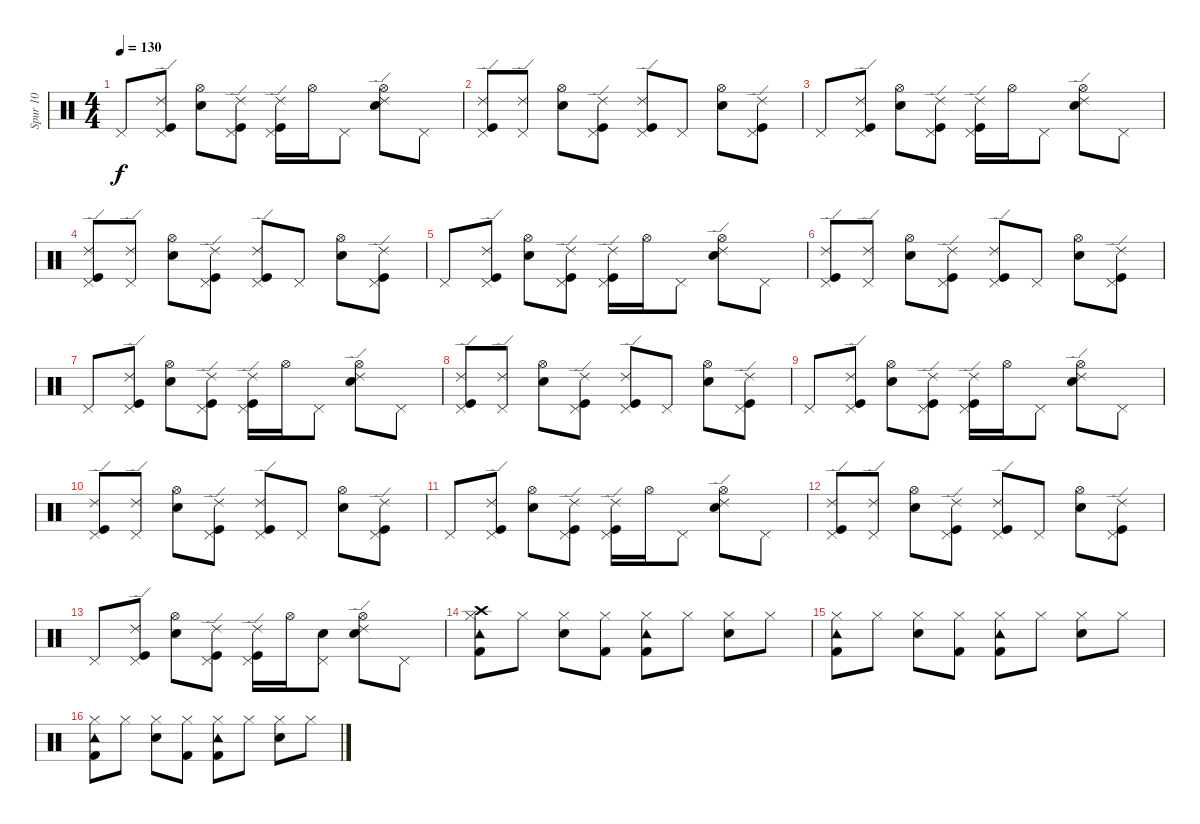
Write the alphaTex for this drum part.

\track ("Spur 10" "Spur 10") {instrument percussion}
\staff {score}
\articulation defaults
\ts (4 4)
\tempo 130
\clef neutral
\ks c "Pedal Hi-Hat (hit)".8{dy f}
("Kick (hit)" "Pedal Hi-Hat (hit)" "Ride (edge) 2").8 ("Electric Snare (hit)" "Hi-Hat (open)").8 ("Kick (hit)" "Pedal Hi-Hat (hit)" "Ride (edge) 2").8 ("Kick (hit)" "Pedal Hi-Hat (hit)" "Ride (edge) 2").16 "Hi-Hat (open)".16 "Pedal Hi-Hat (hit)".8 ("Electric Snare (hit)" "Hi-Hat (open)" "Ride (edge) 2").8 "Pedal Hi-Hat (hit)".8 |
("Kick (hit)" "Pedal Hi-Hat (hit)" "Ride (edge) 2").8 ("Pedal Hi-Hat (hit)" "Ride (edge) 2").8 ("Electric Snare (hit)" "Hi-Hat (open)").8 ("Kick (hit)" "Pedal Hi-Hat (hit)" "Ride (edge) 2").8 ("Kick (hit)" "Pedal Hi-Hat (hit)" "Ride (edge) 2").8 "Pedal Hi-Hat (hit)".8 ("Electric Snare (hit)" "Hi-Hat (open)").8 ("Kick (hit)" "Pedal Hi-Hat (hit)" "Ride (edge) 2").8 |
"Pedal Hi-Hat (hit)".8 ("Kick (hit)" "Pedal Hi-Hat (hit)" "Ride (edge) 2").8 ("Electric Snare (hit)" "Hi-Hat (open)").8 ("Kick (hit)" "Pedal Hi-Hat (hit)" "Ride (edge) 2").8 ("Kick (hit)" "Pedal Hi-Hat (hit)" "Ride (edge) 2").16 "Hi-Hat (open)".16 "Pedal Hi-Hat (hit)".8 ("Electric Snare (hit)" "Hi-Hat (open)" "Ride (edge) 2").8 "Pedal Hi-Hat (hit)".8 |
("Kick (hit)" "Pedal Hi-Hat (hit)" "Ride (edge) 2").8 ("Pedal Hi-Hat (hit)" "Ride (edge) 2").8 ("Electric Snare (hit)" "Hi-Hat (open)").8 ("Kick (hit)" "Pedal Hi-Hat (hit)" "Ride (edge) 2").8 ("Kick (hit)" "Pedal Hi-Hat (hit)" "Ride (edge) 2").8 "Pedal Hi-Hat (hit)".8 ("Electric Snare (hit)" "Hi-Hat (open)").8 ("Kick (hit)" "Pedal Hi-Hat (hit)" "Ride (edge) 2").8 |
"Pedal Hi-Hat (hit)".8 ("Kick (hit)" "Pedal Hi-Hat (hit)" "Ride (edge) 2").8 ("Electric Snare (hit)" "Hi-Hat (open)").8 ("Kick (hit)" "Pedal Hi-Hat (hit)" "Ride (edge) 2").8 ("Kick (hit)" "Pedal Hi-Hat (hit)" "Ride (edge) 2").16 "Hi-Hat (open)".16 "Pedal Hi-Hat (hit)".8 ("Electric Snare (hit)" "Hi-Hat (open)" "Ride (edge) 2").8 "Pedal Hi-Hat (hit)".8 |
("Kick (hit)" "Pedal Hi-Hat (hit)" "Ride (edge) 2").8 ("Pedal Hi-Hat (hit)" "Ride (edge) 2").8 ("Electric Snare (hit)" "Hi-Hat (open)").8 ("Kick (hit)" "Pedal Hi-Hat (hit)" "Ride (edge) 2").8 ("Kick (hit)" "Pedal Hi-Hat (hit)" "Ride (edge) 2").8 "Pedal Hi-Hat (hit)".8 ("Electric Snare (hit)" "Hi-Hat (open)").8 ("Kick (hit)" "Pedal Hi-Hat (hit)" "Ride (edge) 2").8 |
"Pedal Hi-Hat (hit)".8 ("Kick (hit)" "Pedal Hi-Hat (hit)" "Ride (edge) 2").8 ("Electric Snare (hit)" "Hi-Hat (open)").8 ("Kick (hit)" "Pedal Hi-Hat (hit)" "Ride (edge) 2").8 ("Kick (hit)" "Pedal Hi-Hat (hit)" "Ride (edge) 2").16 "Hi-Hat (open)".16 "Pedal Hi-Hat (hit)".8 ("Electric Snare (hit)" "Hi-Hat (open)" "Ride (edge) 2").8 "Pedal Hi-Hat (hit)".8 |
("Kick (hit)" "Pedal Hi-Hat (hit)" "Ride (edge) 2").8 ("Pedal Hi-Hat (hit)" "Ride (edge) 2").8 ("Electric Snare (hit)" "Hi-Hat (open)").8 ("Kick (hit)" "Pedal Hi-Hat (hit)" "Ride (edge) 2").8 ("Kick (hit)" "Pedal Hi-Hat (hit)" "Ride (edge) 2").8 "Pedal Hi-Hat (hit)".8 ("Electric Snare (hit)" "Hi-Hat (open)").8 ("Kick (hit)" "Pedal Hi-Hat (hit)" "Ride (edge) 2").8 |
"Pedal Hi-Hat (hit)".8 ("Kick (hit)" "Pedal Hi-Hat (hit)" "Ride (edge) 2").8 ("Electric Snare (hit)" "Hi-Hat (open)").8 ("Kick (hit)" "Pedal Hi-Hat (hit)" "Ride (edge) 2").8 ("Kick (hit)" "Pedal Hi-Hat (hit)" "Ride (edge) 2").16 "Hi-Hat (open)".16 "Pedal Hi-Hat (hit)".8 ("Electric Snare (hit)" "Hi-Hat (open)" "Ride (edge) 2").8 "Pedal Hi-Hat (hit)".8 |
("Kick (hit)" "Pedal Hi-Hat (hit)" "Ride (edge) 2").8 ("Pedal Hi-Hat (hit)" "Ride (edge) 2").8 ("Electric Snare (hit)" "Hi-Hat (open)").8 ("Kick (hit)" "Pedal Hi-Hat (hit)" "Ride (edge) 2").8 ("Kick (hit)" "Pedal Hi-Hat (hit)" "Ride (edge) 2").8 "Pedal Hi-Hat (hit)".8 ("Electric Snare (hit)" "Hi-Hat (open)").8 ("Kick (hit)" "Pedal Hi-Hat (hit)" "Ride (edge) 2").8 |
"Pedal Hi-Hat (hit)".8 ("Kick (hit)" "Pedal Hi-Hat (hit)" "Ride (edge) 2").8 ("Electric Snare (hit)" "Hi-Hat (open)").8 ("Kick (hit)" "Pedal Hi-Hat (hit)" "Ride (edge) 2").8 ("Kick (hit)" "Pedal Hi-Hat (hit)" "Ride (edge) 2").16 "Hi-Hat (open)".16 "Pedal Hi-Hat (hit)".8 ("Electric Snare (hit)" "Hi-Hat (open)" "Ride (edge) 2").8 "Pedal Hi-Hat (hit)".8 |
("Kick (hit)" "Pedal Hi-Hat (hit)" "Ride (edge) 2").8 ("Pedal Hi-Hat (hit)" "Ride (edge) 2").8 ("Electric Snare (hit)" "Hi-Hat (open)").8 ("Kick (hit)" "Pedal Hi-Hat (hit)" "Ride (edge) 2").8 ("Kick (hit)" "Pedal Hi-Hat (hit)" "Ride (edge) 2").8 "Pedal Hi-Hat (hit)".8 ("Electric Snare (hit)" "Hi-Hat (open)").8 ("Kick (hit)" "Pedal Hi-Hat (hit)" "Ride (edge) 2").8 |
"Pedal Hi-Hat (hit)".8 ("Kick (hit)" "Pedal Hi-Hat (hit)" "Ride (edge) 2").8 ("Electric Snare (hit)" "Hi-Hat (open)").8 ("Kick (hit)" "Pedal Hi-Hat (hit)" "Ride (edge) 2").8 ("Kick (hit)" "Pedal Hi-Hat (hit)" "Ride (edge) 2").16 "Hi-Hat (open)".16 ("Electric Snare (hit)" "Pedal Hi-Hat (hit)").8 ("Electric Snare (hit)" "Hi-Hat (open)" "Ride (edge) 2").8 "Pedal Hi-Hat (hit)".8 |
("Crash high (hit)" "Tambourine (hit)" "Hi-Hat (closed)" "Kick (hit) 2").8 "Hi-Hat (closed)".8 ("Hi-Hat (closed)" "Electric Snare (hit)").8 ("Hi-Hat (closed)" "Kick (hit) 2").8 ("Tambourine (hit)" "Hi-Hat (closed)" "Kick (hit) 2").8 "Hi-Hat (closed)".8 ("Hi-Hat (closed)" "Electric Snare (hit)").8 "Hi-Hat (closed)".8 |
("Hi-Hat (closed)" "Tambourine (hit)" "Kick (hit) 2").8 "Hi-Hat (closed)".8 ("Hi-Hat (closed)" "Electric Snare (hit)").8 ("Hi-Hat (closed)" "Kick (hit) 2").8 ("Tambourine (hit)" "Hi-Hat (closed)" "Kick (hit) 2").8 "Hi-Hat (closed)".8 ("Hi-Hat (closed)" "Electric Snare (hit)").8 "Hi-Hat (closed)".8 |
("Tambourine (hit)" "Hi-Hat (closed)" "Kick (hit) 2").8 "Hi-Hat (closed)".8 ("Hi-Hat (closed)" "Electric Snare (hit)").8 ("Hi-Hat (closed)" "Kick (hit) 2").8 ("Tambourine (hit)" "Hi-Hat (closed)" "Kick (hit) 2").8 "Hi-Hat (closed)".8 ("Hi-Hat (closed)" "Electric Snare (hit)").8 "Hi-Hat (closed)".8
